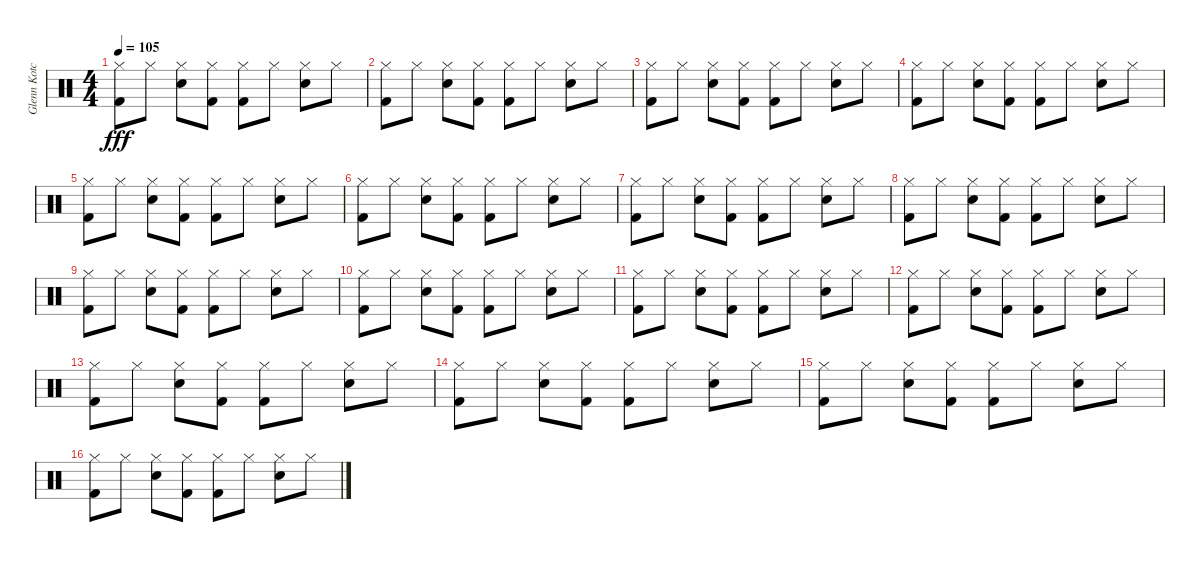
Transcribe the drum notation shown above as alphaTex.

\track ("Glenn Kotche" "Glenn Kotc") {mute instrument percussion}
\staff {score}
\articulation defaults
\ts (4 4)
\tempo 105
\clef neutral
\ks c
("Hi-Hat (closed)" "Kick (hit) 2").8{dy fff} "Hi-Hat (closed)".8 ("Hi-Hat (closed)" "Electric Snare (hit)").8 ("Hi-Hat (closed)" "Kick (hit) 2").8 ("Hi-Hat (closed)" "Kick (hit) 2").8 "Hi-Hat (closed)".8 ("Hi-Hat (closed)" "Electric Snare (hit)").8 "Hi-Hat (closed)".8 |
("Hi-Hat (closed)" "Kick (hit) 2").8 "Hi-Hat (closed)".8 ("Hi-Hat (closed)" "Electric Snare (hit)").8 ("Hi-Hat (closed)" "Kick (hit) 2").8 ("Hi-Hat (closed)" "Kick (hit) 2").8 "Hi-Hat (closed)".8 ("Hi-Hat (closed)" "Electric Snare (hit)").8 "Hi-Hat (closed)".8 |
("Hi-Hat (closed)" "Kick (hit) 2").8 "Hi-Hat (closed)".8 ("Hi-Hat (closed)" "Electric Snare (hit)").8 ("Hi-Hat (closed)" "Kick (hit) 2").8 ("Hi-Hat (closed)" "Kick (hit) 2").8 "Hi-Hat (closed)".8 ("Hi-Hat (closed)" "Electric Snare (hit)").8 "Hi-Hat (closed)".8 |
("Hi-Hat (closed)" "Kick (hit) 2").8 "Hi-Hat (closed)".8 ("Hi-Hat (closed)" "Electric Snare (hit)").8 ("Hi-Hat (closed)" "Kick (hit) 2").8 ("Hi-Hat (closed)" "Kick (hit) 2").8 "Hi-Hat (closed)".8 ("Hi-Hat (closed)" "Electric Snare (hit)").8 "Hi-Hat (closed)".8 |
("Hi-Hat (closed)" "Kick (hit) 2").8 "Hi-Hat (closed)".8 ("Hi-Hat (closed)" "Electric Snare (hit)").8 ("Hi-Hat (closed)" "Kick (hit) 2").8 ("Hi-Hat (closed)" "Kick (hit) 2").8 "Hi-Hat (closed)".8 ("Hi-Hat (closed)" "Electric Snare (hit)").8 "Hi-Hat (closed)".8 |
("Hi-Hat (closed)" "Kick (hit) 2").8 "Hi-Hat (closed)".8 ("Hi-Hat (closed)" "Electric Snare (hit)").8 ("Hi-Hat (closed)" "Kick (hit) 2").8 ("Hi-Hat (closed)" "Kick (hit) 2").8 "Hi-Hat (closed)".8 ("Hi-Hat (closed)" "Electric Snare (hit)").8 "Hi-Hat (closed)".8 |
("Hi-Hat (closed)" "Kick (hit) 2").8 "Hi-Hat (closed)".8 ("Hi-Hat (closed)" "Electric Snare (hit)").8 ("Hi-Hat (closed)" "Kick (hit) 2").8 ("Hi-Hat (closed)" "Kick (hit) 2").8 "Hi-Hat (closed)".8 ("Hi-Hat (closed)" "Electric Snare (hit)").8 "Hi-Hat (closed)".8 |
("Hi-Hat (closed)" "Kick (hit) 2").8 "Hi-Hat (closed)".8 ("Hi-Hat (closed)" "Electric Snare (hit)").8 ("Hi-Hat (closed)" "Kick (hit) 2").8 ("Hi-Hat (closed)" "Kick (hit) 2").8 "Hi-Hat (closed)".8 ("Hi-Hat (closed)" "Electric Snare (hit)").8 "Hi-Hat (closed)".8 |
("Hi-Hat (closed)" "Kick (hit) 2").8 "Hi-Hat (closed)".8 ("Hi-Hat (closed)" "Electric Snare (hit)").8 ("Hi-Hat (closed)" "Kick (hit) 2").8 ("Hi-Hat (closed)" "Kick (hit) 2").8 "Hi-Hat (closed)".8 ("Hi-Hat (closed)" "Electric Snare (hit)").8 "Hi-Hat (closed)".8 |
("Hi-Hat (closed)" "Kick (hit) 2").8 "Hi-Hat (closed)".8 ("Hi-Hat (closed)" "Electric Snare (hit)").8 ("Hi-Hat (closed)" "Kick (hit) 2").8 ("Hi-Hat (closed)" "Kick (hit) 2").8 "Hi-Hat (closed)".8 ("Hi-Hat (closed)" "Electric Snare (hit)").8 "Hi-Hat (closed)".8 |
("Hi-Hat (closed)" "Kick (hit) 2").8 "Hi-Hat (closed)".8 ("Hi-Hat (closed)" "Electric Snare (hit)").8 ("Hi-Hat (closed)" "Kick (hit) 2").8 ("Hi-Hat (closed)" "Kick (hit) 2").8 "Hi-Hat (closed)".8 ("Hi-Hat (closed)" "Electric Snare (hit)").8 "Hi-Hat (closed)".8 |
("Hi-Hat (closed)" "Kick (hit) 2").8 "Hi-Hat (closed)".8 ("Hi-Hat (closed)" "Electric Snare (hit)").8 ("Hi-Hat (closed)" "Kick (hit) 2").8 ("Hi-Hat (closed)" "Kick (hit) 2").8 "Hi-Hat (closed)".8 ("Hi-Hat (closed)" "Electric Snare (hit)").8 "Hi-Hat (closed)".8 |
("Hi-Hat (closed)" "Kick (hit) 2").8 "Hi-Hat (closed)".8 ("Hi-Hat (closed)" "Electric Snare (hit)").8 ("Hi-Hat (closed)" "Kick (hit) 2").8 ("Hi-Hat (closed)" "Kick (hit) 2").8 "Hi-Hat (closed)".8 ("Hi-Hat (closed)" "Electric Snare (hit)").8 "Hi-Hat (closed)".8 |
("Hi-Hat (closed)" "Kick (hit) 2").8 "Hi-Hat (closed)".8 ("Hi-Hat (closed)" "Electric Snare (hit)").8 ("Hi-Hat (closed)" "Kick (hit) 2").8 ("Hi-Hat (closed)" "Kick (hit) 2").8 "Hi-Hat (closed)".8 ("Hi-Hat (closed)" "Electric Snare (hit)").8 "Hi-Hat (closed)".8 |
("Hi-Hat (closed)" "Kick (hit) 2").8 "Hi-Hat (closed)".8 ("Hi-Hat (closed)" "Electric Snare (hit)").8 ("Hi-Hat (closed)" "Kick (hit) 2").8 ("Hi-Hat (closed)" "Kick (hit) 2").8 "Hi-Hat (closed)".8 ("Hi-Hat (closed)" "Electric Snare (hit)").8 "Hi-Hat (closed)".8 |
("Hi-Hat (closed)" "Kick (hit) 2").8 "Hi-Hat (closed)".8 ("Hi-Hat (closed)" "Electric Snare (hit)").8 ("Hi-Hat (closed)" "Kick (hit) 2").8 ("Hi-Hat (closed)" "Kick (hit) 2").8 "Hi-Hat (closed)".8 ("Hi-Hat (closed)" "Electric Snare (hit)").8 "Hi-Hat (closed)".8
